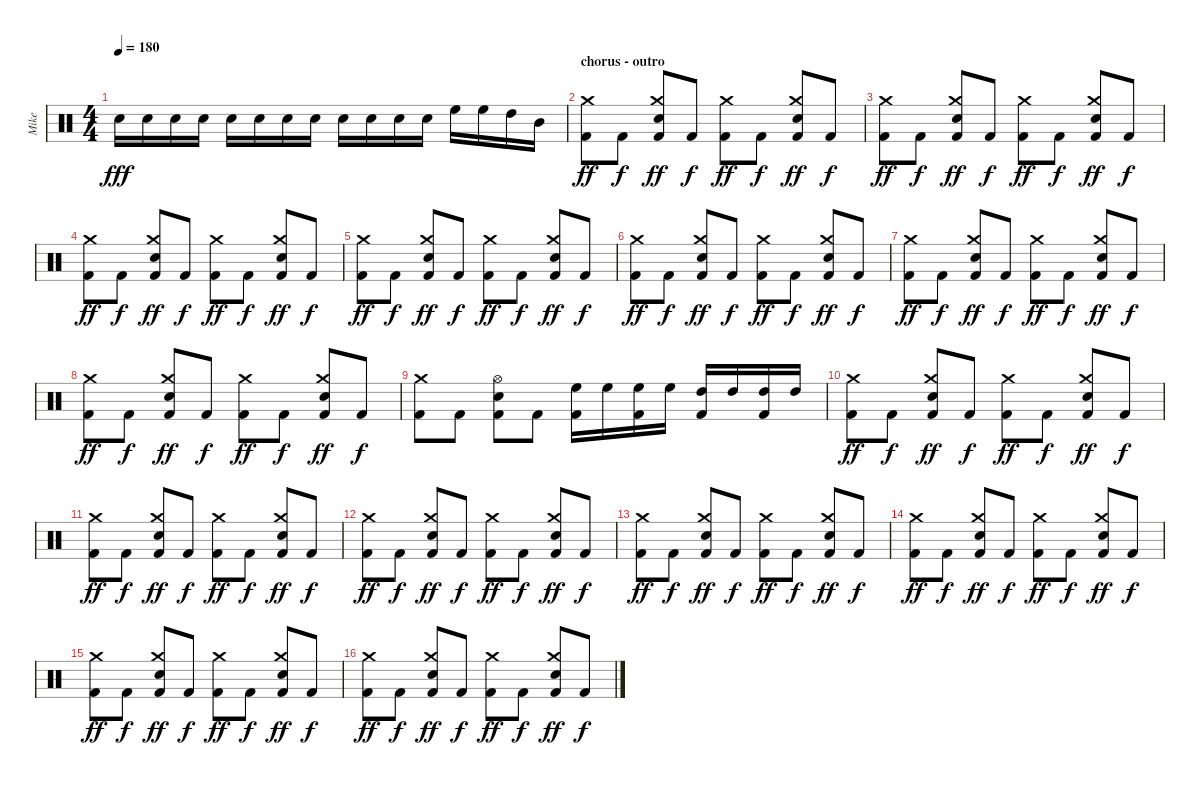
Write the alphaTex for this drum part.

\track ("Mike" "Mike") {instrument percussion}
\staff {score}
\articulation defaults
\ts (4 4)
\tempo 180
\clef neutral
\ks c "Snare (hit) 2".16{dy fff} "Snare (hit) 2".16 "Snare (hit) 2".16 "Snare (hit) 2".16 "Snare (hit) 2".16 "Snare (hit) 2".16 "Snare (hit) 2".16 "Snare (hit) 2".16 "Snare (hit) 2".16 "Snare (hit) 2".16 "Snare (hit) 2".16 "Snare (hit) 2".16 "High Floor Tom (hit)".16 "High Floor Tom (hit)".16 "High Tom (hit)".16 "Mid Tom (hit)".16
|
\section ("" "chorus - outro")
("Crash medium (hit)" "Kick (hit) 2").8{dy ff} "Kick (hit) 2".8{dy f} ("Crash medium (hit)" "Snare (hit) 2" "Kick (hit) 2").8{dy ff} "Kick (hit) 2".8{dy f} ("Crash medium (hit)" "Kick (hit) 2").8{dy ff} "Kick (hit) 2".8{dy f} ("Crash medium (hit)" "Snare (hit) 2" "Kick (hit) 2").8{dy ff} "Kick (hit) 2".8{dy f} |
("Crash medium (hit)" "Kick (hit) 2").8{dy ff} "Kick (hit) 2".8{dy f} ("Crash medium (hit)" "Snare (hit) 2" "Kick (hit) 2").8{dy ff} "Kick (hit) 2".8{dy f} ("Crash medium (hit)" "Kick (hit) 2").8{dy ff} "Kick (hit) 2".8{dy f} ("Crash medium (hit)" "Snare (hit) 2" "Kick (hit) 2").8{dy ff} "Kick (hit) 2".8{dy f} |
("Crash medium (hit)" "Kick (hit) 2").8{dy ff} "Kick (hit) 2".8{dy f} ("Crash medium (hit)" "Snare (hit) 2" "Kick (hit) 2").8{dy ff} "Kick (hit) 2".8{dy f} ("Crash medium (hit)" "Kick (hit) 2").8{dy ff} "Kick (hit) 2".8{dy f} ("Crash medium (hit)" "Snare (hit) 2" "Kick (hit) 2").8{dy ff} "Kick (hit) 2".8{dy f} |
("Crash medium (hit)" "Kick (hit) 2").8{dy ff} "Kick (hit) 2".8{dy f} ("Crash medium (hit)" "Snare (hit) 2" "Kick (hit) 2").8{dy ff} "Kick (hit) 2".8{dy f} ("Crash medium (hit)" "Kick (hit) 2").8{dy ff} "Kick (hit) 2".8{dy f} ("Crash medium (hit)" "Snare (hit) 2" "Kick (hit) 2").8{dy ff} "Kick (hit) 2".8{dy f} |
("Crash medium (hit)" "Kick (hit) 2").8{dy ff} "Kick (hit) 2".8{dy f} ("Crash medium (hit)" "Snare (hit) 2" "Kick (hit) 2").8{dy ff} "Kick (hit) 2".8{dy f} ("Crash medium (hit)" "Kick (hit) 2").8{dy ff} "Kick (hit) 2".8{dy f} ("Crash medium (hit)" "Snare (hit) 2" "Kick (hit) 2").8{dy ff} "Kick (hit) 2".8{dy f} |
("Crash medium (hit)" "Kick (hit) 2").8{dy ff} "Kick (hit) 2".8{dy f} ("Crash medium (hit)" "Snare (hit) 2" "Kick (hit) 2").8{dy ff} "Kick (hit) 2".8{dy f} ("Crash medium (hit)" "Kick (hit) 2").8{dy ff} "Kick (hit) 2".8{dy f} ("Crash medium (hit)" "Snare (hit) 2" "Kick (hit) 2").8{dy ff} "Kick (hit) 2".8{dy f} |
("Crash medium (hit)" "Kick (hit) 2").8{dy ff} "Kick (hit) 2".8{dy f} ("Crash medium (hit)" "Snare (hit) 2" "Kick (hit) 2").8{dy ff} "Kick (hit) 2".8{dy f} ("Crash medium (hit)" "Kick (hit) 2").8{dy ff} "Kick (hit) 2".8{dy f} ("Crash medium (hit)" "Snare (hit) 2" "Kick (hit) 2").8{dy ff} "Kick (hit) 2".8{dy f} |
("Crash medium (hit)" "Kick (hit) 2").8 "Kick (hit) 2".8 ("Hi-Hat (open)" "Snare (hit) 2" "Kick (hit) 2").8 "Kick (hit) 2".8 ("High Floor Tom (hit)" "Kick (hit) 2").16 "High Floor Tom (hit)".16 ("High Floor Tom (hit)" "Kick (hit) 2").16 "High Floor Tom (hit)".16 ("High Tom (hit)" "Kick (hit) 2").16 "High Tom (hit)".16 ("High Tom (hit)" "Kick (hit) 2").16 "High Tom (hit)".16 |
("Crash medium (hit)" "Kick (hit) 2").8{dy ff} "Kick (hit) 2".8{dy f} ("Crash medium (hit)" "Snare (hit) 2" "Kick (hit) 2").8{dy ff} "Kick (hit) 2".8{dy f} ("Crash medium (hit)" "Kick (hit) 2").8{dy ff} "Kick (hit) 2".8{dy f} ("Crash medium (hit)" "Snare (hit) 2" "Kick (hit) 2").8{dy ff} "Kick (hit) 2".8{dy f} |
("Crash medium (hit)" "Kick (hit) 2").8{dy ff} "Kick (hit) 2".8{dy f} ("Crash medium (hit)" "Snare (hit) 2" "Kick (hit) 2").8{dy ff} "Kick (hit) 2".8{dy f} ("Crash medium (hit)" "Kick (hit) 2").8{dy ff} "Kick (hit) 2".8{dy f} ("Crash medium (hit)" "Snare (hit) 2" "Kick (hit) 2").8{dy ff} "Kick (hit) 2".8{dy f} |
("Crash medium (hit)" "Kick (hit) 2").8{dy ff} "Kick (hit) 2".8{dy f} ("Crash medium (hit)" "Snare (hit) 2" "Kick (hit) 2").8{dy ff} "Kick (hit) 2".8{dy f} ("Crash medium (hit)" "Kick (hit) 2").8{dy ff} "Kick (hit) 2".8{dy f} ("Crash medium (hit)" "Snare (hit) 2" "Kick (hit) 2").8{dy ff} "Kick (hit) 2".8{dy f} |
("Crash medium (hit)" "Kick (hit) 2").8{dy ff} "Kick (hit) 2".8{dy f} ("Crash medium (hit)" "Snare (hit) 2" "Kick (hit) 2").8{dy ff} "Kick (hit) 2".8{dy f} ("Crash medium (hit)" "Kick (hit) 2").8{dy ff} "Kick (hit) 2".8{dy f} ("Crash medium (hit)" "Snare (hit) 2" "Kick (hit) 2").8{dy ff} "Kick (hit) 2".8{dy f} |
("Crash medium (hit)" "Kick (hit) 2").8{dy ff} "Kick (hit) 2".8{dy f} ("Crash medium (hit)" "Snare (hit) 2" "Kick (hit) 2").8{dy ff} "Kick (hit) 2".8{dy f} ("Crash medium (hit)" "Kick (hit) 2").8{dy ff} "Kick (hit) 2".8{dy f} ("Crash medium (hit)" "Snare (hit) 2" "Kick (hit) 2").8{dy ff} "Kick (hit) 2".8{dy f} |
("Crash medium (hit)" "Kick (hit) 2").8{dy ff} "Kick (hit) 2".8{dy f} ("Crash medium (hit)" "Snare (hit) 2" "Kick (hit) 2").8{dy ff} "Kick (hit) 2".8{dy f} ("Crash medium (hit)" "Kick (hit) 2").8{dy ff} "Kick (hit) 2".8{dy f} ("Crash medium (hit)" "Snare (hit) 2" "Kick (hit) 2").8{dy ff} "Kick (hit) 2".8{dy f} |
("Crash medium (hit)" "Kick (hit) 2").8{dy ff} "Kick (hit) 2".8{dy f} ("Crash medium (hit)" "Snare (hit) 2" "Kick (hit) 2").8{dy ff} "Kick (hit) 2".8{dy f} ("Crash medium (hit)" "Kick (hit) 2").8{dy ff} "Kick (hit) 2".8{dy f} ("Crash medium (hit)" "Snare (hit) 2" "Kick (hit) 2").8{dy ff} "Kick (hit) 2".8{dy f}
